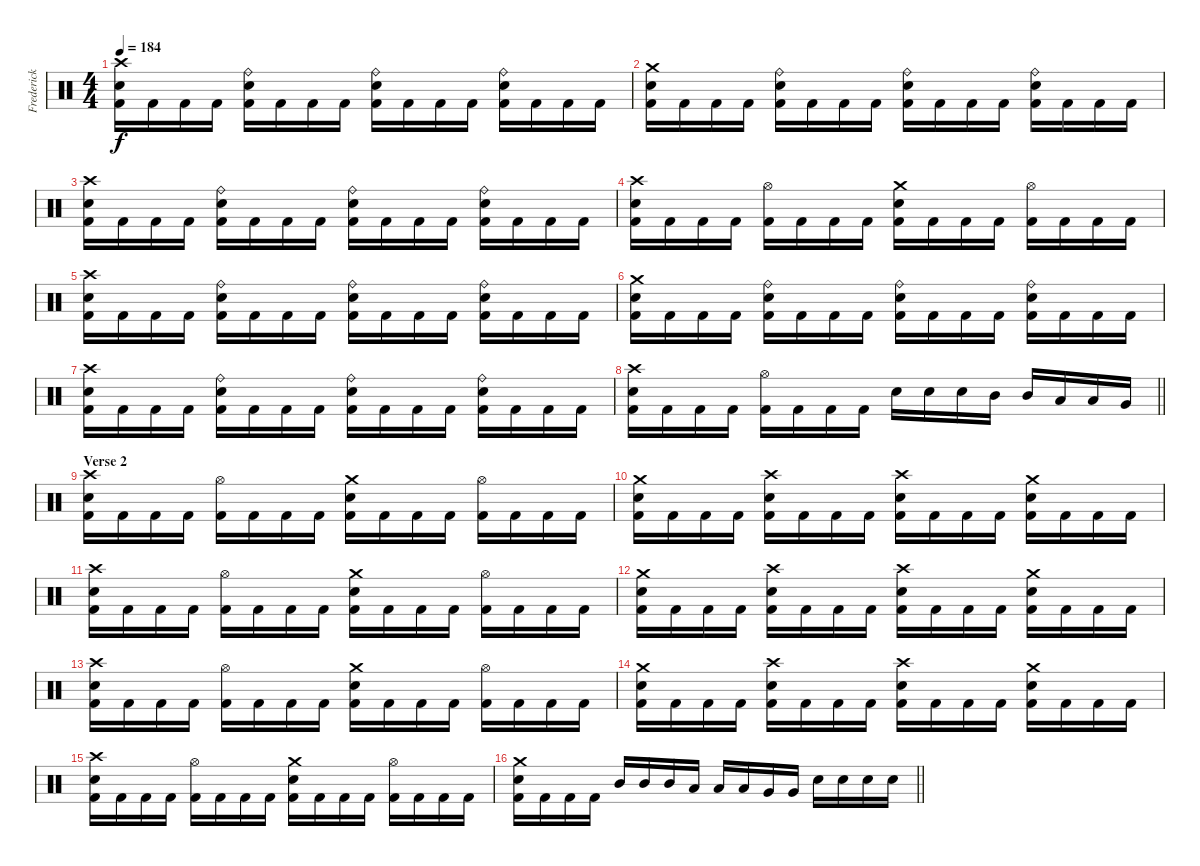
\track ("Frederick Ehmke" "Frederick ") {instrument percussion}
\staff {score}
\articulation defaults
\ts (4 4)
\tempo 184
\clef neutral
\ks c
("Electric Snare (hit)" "Kick (hit) 2" "Crash high (hit)").16{dy f} "Kick (hit) 2".16 "Kick (hit) 2".16 "Kick (hit) 2".16 ("Electric Snare (hit)" "Kick (hit) 2" "Ride (bell)").16 "Kick (hit) 2".16 "Kick (hit) 2".16 "Kick (hit) 2".16 ("Electric Snare (hit)" "Kick (hit) 2" "Ride (bell)").16 "Kick (hit) 2".16 "Kick (hit) 2".16 "Kick (hit) 2".16 ("Electric Snare (hit)" "Kick (hit) 2" "Ride (bell)").16 "Kick (hit) 2".16 "Kick (hit) 2".16 "Kick (hit) 2".16 |
("Electric Snare (hit)" "Kick (hit) 2" "Crash medium (hit)").16 "Kick (hit) 2".16 "Kick (hit) 2".16 "Kick (hit) 2".16 ("Electric Snare (hit)" "Kick (hit) 2" "Ride (bell)").16 "Kick (hit) 2".16 "Kick (hit) 2".16 "Kick (hit) 2".16 ("Electric Snare (hit)" "Kick (hit) 2" "Ride (bell)").16 "Kick (hit) 2".16 "Kick (hit) 2".16 "Kick (hit) 2".16 ("Electric Snare (hit)" "Kick (hit) 2" "Ride (bell)").16 "Kick (hit) 2".16 "Kick (hit) 2".16 "Kick (hit) 2".16 |
("Electric Snare (hit)" "Kick (hit) 2" "Crash high (hit)").16 "Kick (hit) 2".16 "Kick (hit) 2".16 "Kick (hit) 2".16 ("Electric Snare (hit)" "Kick (hit) 2" "Ride (bell)").16 "Kick (hit) 2".16 "Kick (hit) 2".16 "Kick (hit) 2".16 ("Electric Snare (hit)" "Kick (hit) 2" "Ride (bell)").16 "Kick (hit) 2".16 "Kick (hit) 2".16 "Kick (hit) 2".16 ("Electric Snare (hit)" "Kick (hit) 2" "Ride (bell)").16 "Kick (hit) 2".16 "Kick (hit) 2".16 "Kick (hit) 2".16 |
("Electric Snare (hit)" "Kick (hit) 2" "Crash high (hit)").16 "Kick (hit) 2".16 "Kick (hit) 2".16 "Kick (hit) 2".16 ("Kick (hit) 2" "Hi-Hat (open)").16 "Kick (hit) 2".16 "Kick (hit) 2".16 "Kick (hit) 2".16 ("Electric Snare (hit)" "Kick (hit) 2" "Crash medium (hit)").16 "Kick (hit) 2".16 "Kick (hit) 2".16 "Kick (hit) 2".16 ("Kick (hit) 2" "Hi-Hat (open)").16 "Kick (hit) 2".16 "Kick (hit) 2".16 "Kick (hit) 2".16 |
("Electric Snare (hit)" "Kick (hit) 2" "Crash high (hit)").16 "Kick (hit) 2".16 "Kick (hit) 2".16 "Kick (hit) 2".16 ("Electric Snare (hit)" "Kick (hit) 2" "Ride (bell)").16 "Kick (hit) 2".16 "Kick (hit) 2".16 "Kick (hit) 2".16 ("Electric Snare (hit)" "Kick (hit) 2" "Ride (bell)").16 "Kick (hit) 2".16 "Kick (hit) 2".16 "Kick (hit) 2".16 ("Electric Snare (hit)" "Kick (hit) 2" "Ride (bell)").16 "Kick (hit) 2".16 "Kick (hit) 2".16 "Kick (hit) 2".16 |
("Electric Snare (hit)" "Kick (hit) 2" "Crash medium (hit)").16 "Kick (hit) 2".16 "Kick (hit) 2".16 "Kick (hit) 2".16 ("Electric Snare (hit)" "Kick (hit) 2" "Ride (bell)").16 "Kick (hit) 2".16 "Kick (hit) 2".16 "Kick (hit) 2".16 ("Electric Snare (hit)" "Kick (hit) 2" "Ride (bell)").16 "Kick (hit) 2".16 "Kick (hit) 2".16 "Kick (hit) 2".16 ("Electric Snare (hit)" "Kick (hit) 2" "Ride (bell)").16 "Kick (hit) 2".16 "Kick (hit) 2".16 "Kick (hit) 2".16 |
("Electric Snare (hit)" "Kick (hit) 2" "Crash high (hit)").16 "Kick (hit) 2".16 "Kick (hit) 2".16 "Kick (hit) 2".16 ("Electric Snare (hit)" "Kick (hit) 2" "Ride (bell)").16 "Kick (hit) 2".16 "Kick (hit) 2".16 "Kick (hit) 2".16 ("Electric Snare (hit)" "Kick (hit) 2" "Ride (bell)").16 "Kick (hit) 2".16 "Kick (hit) 2".16 "Kick (hit) 2".16 ("Electric Snare (hit)" "Kick (hit) 2" "Ride (bell)").16 "Kick (hit) 2".16 "Kick (hit) 2".16 "Kick (hit) 2".16 |
\barLineRight lightlight
("Electric Snare (hit)" "Kick (hit) 2" "Crash high (hit)").16 "Kick (hit) 2".16 "Kick (hit) 2".16 "Kick (hit) 2".16 ("Kick (hit) 2" "Hi-Hat (open)").16 "Kick (hit) 2".16 "Kick (hit) 2".16 "Kick (hit) 2".16 "Electric Snare (hit)".16 "Electric Snare (hit)".16 "Electric Snare (hit)".16 "Mid Tom (hit)".16 "Mid Tom (hit)".16 "Low Tom (hit)".16 "Low Tom (hit)".16 "Very Low Tom (hit)".16 |
\section ("" "Verse 2")
("Electric Snare (hit)" "Kick (hit) 2" "Crash high (hit)").16 "Kick (hit) 2".16 "Kick (hit) 2".16 "Kick (hit) 2".16 ("Kick (hit) 2" "Hi-Hat (open)").16 "Kick (hit) 2".16 "Kick (hit) 2".16 "Kick (hit) 2".16 ("Electric Snare (hit)" "Kick (hit) 2" "Crash medium (hit)").16 "Kick (hit) 2".16 "Kick (hit) 2".16 "Kick (hit) 2".16 ("Hi-Hat (open)" "Kick (hit) 2").16 "Kick (hit) 2".16 "Kick (hit) 2".16 "Kick (hit) 2".16 |
("Electric Snare (hit)" "Kick (hit) 2" "Crash medium (hit)").16 "Kick (hit) 2".16 "Kick (hit) 2".16 "Kick (hit) 2".16 ("Electric Snare (hit)" "Kick (hit) 2" "Crash high (hit)").16 "Kick (hit) 2".16 "Kick (hit) 2".16 "Kick (hit) 2".16 ("Electric Snare (hit)" "Kick (hit) 2" "Crash high (hit)").16 "Kick (hit) 2".16 "Kick (hit) 2".16 "Kick (hit) 2".16 ("Electric Snare (hit)" "Kick (hit) 2" "Crash medium (hit)").16 "Kick (hit) 2".16 "Kick (hit) 2".16 "Kick (hit) 2".16 |
("Electric Snare (hit)" "Kick (hit) 2" "Crash high (hit)").16 "Kick (hit) 2".16 "Kick (hit) 2".16 "Kick (hit) 2".16 ("Kick (hit) 2" "Hi-Hat (open)").16 "Kick (hit) 2".16 "Kick (hit) 2".16 "Kick (hit) 2".16 ("Electric Snare (hit)" "Kick (hit) 2" "Crash medium (hit)").16 "Kick (hit) 2".16 "Kick (hit) 2".16 "Kick (hit) 2".16 ("Hi-Hat (open)" "Kick (hit) 2").16 "Kick (hit) 2".16 "Kick (hit) 2".16 "Kick (hit) 2".16 |
("Electric Snare (hit)" "Kick (hit) 2" "Crash medium (hit)").16 "Kick (hit) 2".16 "Kick (hit) 2".16 "Kick (hit) 2".16 ("Electric Snare (hit)" "Kick (hit) 2" "Crash high (hit)").16 "Kick (hit) 2".16 "Kick (hit) 2".16 "Kick (hit) 2".16 ("Electric Snare (hit)" "Kick (hit) 2" "Crash high (hit)").16 "Kick (hit) 2".16 "Kick (hit) 2".16 "Kick (hit) 2".16 ("Electric Snare (hit)" "Kick (hit) 2" "Crash medium (hit)").16 "Kick (hit) 2".16 "Kick (hit) 2".16 "Kick (hit) 2".16 |
("Electric Snare (hit)" "Kick (hit) 2" "Crash high (hit)").16 "Kick (hit) 2".16 "Kick (hit) 2".16 "Kick (hit) 2".16 ("Kick (hit) 2" "Hi-Hat (open)").16 "Kick (hit) 2".16 "Kick (hit) 2".16 "Kick (hit) 2".16 ("Electric Snare (hit)" "Kick (hit) 2" "Crash medium (hit)").16 "Kick (hit) 2".16 "Kick (hit) 2".16 "Kick (hit) 2".16 ("Hi-Hat (open)" "Kick (hit) 2").16 "Kick (hit) 2".16 "Kick (hit) 2".16 "Kick (hit) 2".16 |
("Electric Snare (hit)" "Kick (hit) 2" "Crash medium (hit)").16 "Kick (hit) 2".16 "Kick (hit) 2".16 "Kick (hit) 2".16 ("Electric Snare (hit)" "Kick (hit) 2" "Crash high (hit)").16 "Kick (hit) 2".16 "Kick (hit) 2".16 "Kick (hit) 2".16 ("Electric Snare (hit)" "Kick (hit) 2" "Crash high (hit)").16 "Kick (hit) 2".16 "Kick (hit) 2".16 "Kick (hit) 2".16 ("Electric Snare (hit)" "Kick (hit) 2" "Crash medium (hit)").16 "Kick (hit) 2".16 "Kick (hit) 2".16 "Kick (hit) 2".16 |
("Electric Snare (hit)" "Kick (hit) 2" "Crash high (hit)").16 "Kick (hit) 2".16 "Kick (hit) 2".16 "Kick (hit) 2".16 ("Kick (hit) 2" "Hi-Hat (open)").16 "Kick (hit) 2".16 "Kick (hit) 2".16 "Kick (hit) 2".16 ("Electric Snare (hit)" "Kick (hit) 2" "Crash medium (hit)").16 "Kick (hit) 2".16 "Kick (hit) 2".16 "Kick (hit) 2".16 ("Hi-Hat (open)" "Kick (hit) 2").16 "Kick (hit) 2".16 "Kick (hit) 2".16 "Kick (hit) 2".16 |
\barLineRight lightlight
("Electric Snare (hit)" "Kick (hit) 2" "Crash medium (hit)").16 "Kick (hit) 2".16 "Kick (hit) 2".16 "Kick (hit) 2".16 "Mid Tom (hit)".16 "Mid Tom (hit)".16 "Mid Tom (hit)".16 "Low Tom (hit)".16 "Low Tom (hit)".16 "Low Tom (hit)".16 "Very Low Tom (hit)".16 "Very Low Tom (hit)".16 "Electric Snare (hit)".16 "Electric Snare (hit)".16 "Electric Snare (hit)".16 "Electric Snare (hit)".16
